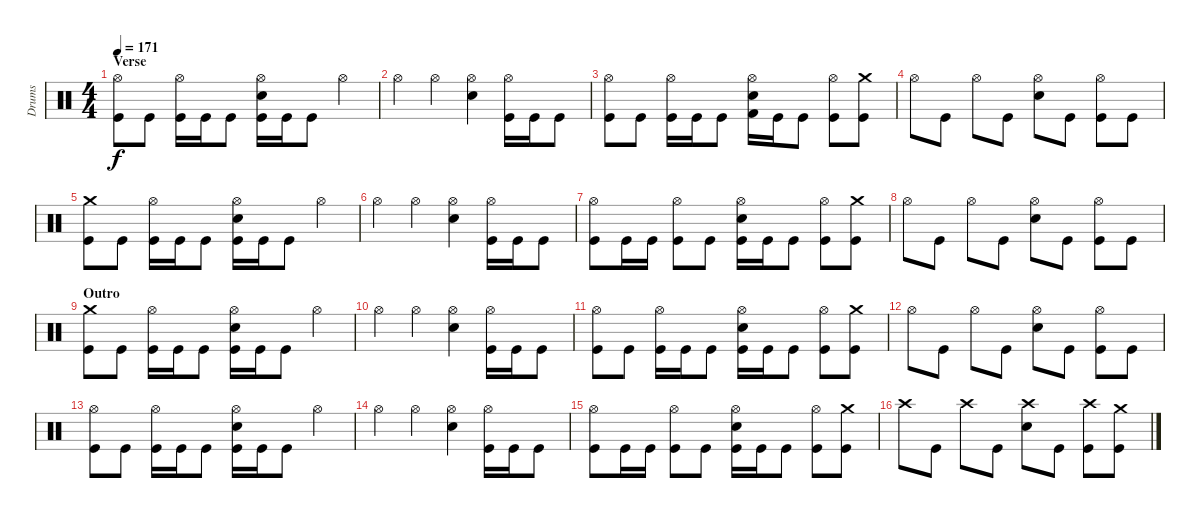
\track ("Drums" "Drums") {instrument percussion}
\staff {score}
\articulation defaults
\ts (4 4)
\section ("" "Verse")
\tempo 171
\clef neutral
\ks c
("Hi-Hat (open)" "Kick (hit)").8{dy f} "Kick (hit)".8 ("Hi-Hat (open)" "Kick (hit)").16 "Kick (hit)".16 "Kick (hit)".8 ("Hi-Hat (open)" "Snare (hit) 2" "Kick (hit)").16 "Kick (hit)".16 "Kick (hit)".8 "Hi-Hat (open)".4 |
"Hi-Hat (open)".4 "Hi-Hat (open)".4 ("Hi-Hat (open)" "Snare (hit) 2").4 ("Hi-Hat (open)" "Kick (hit)").16 "Kick (hit)".16 "Kick (hit)".8 |
("Hi-Hat (open)" "Kick (hit)").8 "Kick (hit)".8 ("Hi-Hat (open)" "Kick (hit)").16 "Kick (hit)".16 "Kick (hit)".8 ("Hi-Hat (open)" "Snare (hit) 2" "Kick (hit) 2").16 "Kick (hit)".16 "Kick (hit)".8 ("Hi-Hat (open)" "Kick (hit)").8 ("Crash medium (hit)" "Kick (hit)").8 |
"Hi-Hat (open)".8 "Kick (hit)".8 "Hi-Hat (open)".8 "Kick (hit)".8 ("Hi-Hat (open)" "Snare (hit) 2").8 "Kick (hit)".8 ("Hi-Hat (open)" "Kick (hit)").8 "Kick (hit)".8 |
("Crash medium (hit)" "Kick (hit)").8 "Kick (hit)".8 ("Hi-Hat (open)" "Kick (hit)").16 "Kick (hit)".16 "Kick (hit)".8 ("Hi-Hat (open)" "Snare (hit) 2" "Kick (hit)").16 "Kick (hit)".16 "Kick (hit)".8 "Hi-Hat (open)".4 |
"Hi-Hat (open)".4 "Hi-Hat (open)".4 ("Hi-Hat (open)" "Snare (hit) 2").4 ("Hi-Hat (open)" "Kick (hit)").16 "Kick (hit)".16 "Kick (hit)".8 |
("Hi-Hat (open)" "Kick (hit)").8 "Kick (hit)".16 "Kick (hit)".16 ("Hi-Hat (open)" "Kick (hit)").8 "Kick (hit)".8 ("Hi-Hat (open)" "Snare (hit) 2" "Kick (hit)").16 "Kick (hit)".16 "Kick (hit)".8 ("Hi-Hat (open)" "Kick (hit)").8 ("Crash medium (hit)" "Kick (hit)").8 |
"Hi-Hat (open)".8 "Kick (hit)".8 "Hi-Hat (open)".8 "Kick (hit)".8 ("Hi-Hat (open)" "Snare (hit) 2").8 "Kick (hit)".8 ("Hi-Hat (open)" "Kick (hit)").8 "Kick (hit)".8 |
\section ("" "Outro")
("Crash medium (hit)" "Kick (hit)").8 "Kick (hit)".8 ("Hi-Hat (open)" "Kick (hit)").16 "Kick (hit)".16 "Kick (hit)".8 ("Hi-Hat (open)" "Snare (hit) 2" "Kick (hit)").16 "Kick (hit)".16 "Kick (hit)".8 "Hi-Hat (open)".4 |
"Hi-Hat (open)".4 "Hi-Hat (open)".4 ("Hi-Hat (open)" "Snare (hit) 2").4 ("Hi-Hat (open)" "Kick (hit)").16 "Kick (hit)".16 "Kick (hit)".8 |
("Hi-Hat (open)" "Kick (hit)").8 "Kick (hit)".8 ("Hi-Hat (open)" "Kick (hit)").16 "Kick (hit)".16 "Kick (hit)".8 ("Hi-Hat (open)" "Snare (hit) 2" "Kick (hit)").16 "Kick (hit)".16 "Kick (hit)".8 ("Hi-Hat (open)" "Kick (hit)").8 ("Crash medium (hit)" "Kick (hit)").8 |
"Hi-Hat (open)".8 "Kick (hit)".8 "Hi-Hat (open)".8 "Kick (hit)".8 ("Hi-Hat (open)" "Snare (hit) 2").8 "Kick (hit)".8 ("Hi-Hat (open)" "Kick (hit)").8 "Kick (hit)".8 |
("Hi-Hat (open)" "Kick (hit)").8 "Kick (hit)".8 ("Hi-Hat (open)" "Kick (hit)").16 "Kick (hit)".16 "Kick (hit)".8 ("Hi-Hat (open)" "Snare (hit) 2" "Kick (hit)").16 "Kick (hit)".16 "Kick (hit)".8 "Hi-Hat (open)".4 |
"Hi-Hat (open)".4 "Hi-Hat (open)".4 ("Hi-Hat (open)" "Snare (hit) 2").4 ("Hi-Hat (open)" "Kick (hit)").16 "Kick (hit)".16 "Kick (hit)".8 |
("Hi-Hat (open)" "Kick (hit)").8 "Kick (hit)".16 "Kick (hit)".16 ("Hi-Hat (open)" "Kick (hit)").8 "Kick (hit)".8 ("Hi-Hat (open)" "Snare (hit) 2" "Kick (hit)").16 "Kick (hit)".16 "Kick (hit)".8 ("Hi-Hat (open)" "Kick (hit)").8 ("Crash medium (hit)" "Kick (hit)").8 |
"Crash high (hit)".8 "Kick (hit)".8 "Crash high (hit)".8 "Kick (hit)".8 ("Crash high (hit)" "Snare (hit) 2").8 "Kick (hit)".8 ("Crash high (hit)" "Kick (hit)").8 ("Crash medium (hit)" "Kick (hit)").8
